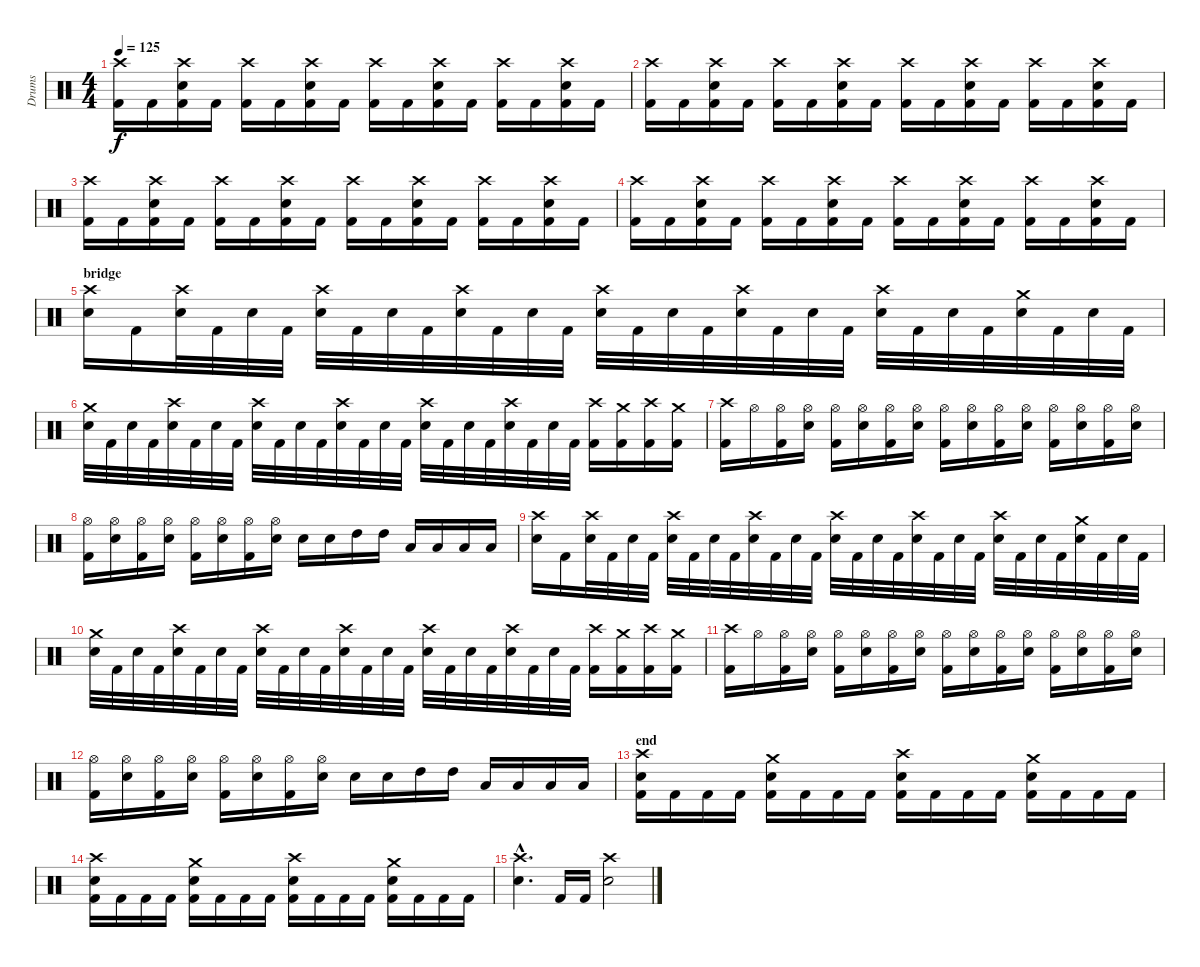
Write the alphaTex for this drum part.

\track ("Drums" "Drums") {instrument percussion}
\staff {score}
\articulation defaults
\ts (4 4)
\tempo 125
\clef neutral
\ks c
("Crash high (hit)" "Kick (hit) 2").16{dy f} "Kick (hit) 2".16 ("Crash high (hit)" "Electric Snare (hit)" "Kick (hit) 2").16 "Kick (hit) 2".16 ("Crash high (hit)" "Kick (hit) 2").16 "Kick (hit) 2".16 ("Crash high (hit)" "Electric Snare (hit)" "Kick (hit) 2").16 "Kick (hit) 2".16 ("Crash high (hit)" "Kick (hit) 2").16 "Kick (hit) 2".16 ("Crash high (hit)" "Electric Snare (hit)" "Kick (hit) 2").16 "Kick (hit) 2".16 ("Crash high (hit)" "Kick (hit) 2").16 "Kick (hit) 2".16 ("Crash high (hit)" "Electric Snare (hit)" "Kick (hit) 2").16 "Kick (hit) 2".16 |
("Crash high (hit)" "Kick (hit) 2").16 "Kick (hit) 2".16 ("Crash high (hit)" "Electric Snare (hit)" "Kick (hit) 2").16 "Kick (hit) 2".16 ("Crash high (hit)" "Kick (hit) 2").16 "Kick (hit) 2".16 ("Crash high (hit)" "Electric Snare (hit)" "Kick (hit) 2").16 "Kick (hit) 2".16 ("Crash high (hit)" "Kick (hit) 2").16 "Kick (hit) 2".16 ("Crash high (hit)" "Electric Snare (hit)" "Kick (hit) 2").16 "Kick (hit) 2".16 ("Crash high (hit)" "Kick (hit) 2").16 "Kick (hit) 2".16 ("Crash high (hit)" "Electric Snare (hit)" "Kick (hit) 2").16 "Kick (hit) 2".16 |
("Crash high (hit)" "Kick (hit) 2").16 "Kick (hit) 2".16 ("Crash high (hit)" "Electric Snare (hit)" "Kick (hit) 2").16 "Kick (hit) 2".16 ("Crash high (hit)" "Kick (hit) 2").16 "Kick (hit) 2".16 ("Crash high (hit)" "Electric Snare (hit)" "Kick (hit) 2").16 "Kick (hit) 2".16 ("Crash high (hit)" "Kick (hit) 2").16 "Kick (hit) 2".16 ("Crash high (hit)" "Electric Snare (hit)" "Kick (hit) 2").16 "Kick (hit) 2".16 ("Crash high (hit)" "Kick (hit) 2").16 "Kick (hit) 2".16 ("Crash high (hit)" "Electric Snare (hit)" "Kick (hit) 2").16 "Kick (hit) 2".16 |
("Crash high (hit)" "Kick (hit) 2").16 "Kick (hit) 2".16 ("Crash high (hit)" "Electric Snare (hit)" "Kick (hit) 2").16 "Kick (hit) 2".16 ("Crash high (hit)" "Kick (hit) 2").16 "Kick (hit) 2".16 ("Crash high (hit)" "Electric Snare (hit)" "Kick (hit) 2").16 "Kick (hit) 2".16 ("Crash high (hit)" "Kick (hit) 2").16 "Kick (hit) 2".16 ("Crash high (hit)" "Electric Snare (hit)" "Kick (hit) 2").16 "Kick (hit) 2".16 ("Crash high (hit)" "Kick (hit) 2").16 "Kick (hit) 2".16 ("Crash high (hit)" "Electric Snare (hit)" "Kick (hit) 2").16 "Kick (hit) 2".16 |
\section ("" "bridge")
("Crash high (hit)" "Electric Snare (hit)").16 "Kick (hit) 2".16 ("Crash high (hit)" "Electric Snare (hit)").32 "Kick (hit) 2".32 "Electric Snare (hit)".32 "Kick (hit) 2".32 ("Crash high (hit)" "Electric Snare (hit)").32 "Kick (hit) 2".32 "Electric Snare (hit)".32 "Kick (hit) 2".32 ("Crash high (hit)" "Electric Snare (hit)").32 "Kick (hit) 2".32 "Electric Snare (hit)".32 "Kick (hit) 2".32 ("Crash high (hit)" "Electric Snare (hit)").32 "Kick (hit) 2".32 "Electric Snare (hit)".32 "Kick (hit) 2".32 ("Crash high (hit)" "Electric Snare (hit)").32 "Kick (hit) 2".32 "Electric Snare (hit)".32 "Kick (hit) 2".32 ("Crash high (hit)" "Electric Snare (hit)").32 "Kick (hit) 2".32 "Electric Snare (hit)".32 "Kick (hit) 2".32 ("Crash medium (hit)" "Electric Snare (hit)").32 "Kick (hit) 2".32 "Electric Snare (hit)".32 "Kick (hit) 2".32 |
("Crash medium (hit)" "Electric Snare (hit)").32 "Kick (hit) 2".32 "Electric Snare (hit)".32 "Kick (hit) 2".32 ("Crash high (hit)" "Electric Snare (hit)").32 "Kick (hit) 2".32 "Electric Snare (hit)".32 "Kick (hit) 2".32 ("Crash high (hit)" "Electric Snare (hit)").32 "Kick (hit) 2".32 "Electric Snare (hit)".32 "Kick (hit) 2".32 ("Crash high (hit)" "Electric Snare (hit)").32 "Kick (hit) 2".32 "Electric Snare (hit)".32 "Kick (hit) 2".32 ("Crash high (hit)" "Electric Snare (hit)").32 "Kick (hit) 2".32 "Electric Snare (hit)".32 "Kick (hit) 2".32 ("Crash high (hit)" "Electric Snare (hit)").32 "Kick (hit) 2".32 "Electric Snare (hit)".32 "Kick (hit) 2".32 ("Crash high (hit)" "Kick (hit) 2").16 ("Crash medium (hit)" "Kick (hit) 2").16 ("Crash high (hit)" "Kick (hit) 2").16 ("Crash medium (hit)" "Kick (hit) 2").16 |
("Crash high (hit)" "Kick (hit) 2").16 "Hi-Hat (open)".16 ("Hi-Hat (open)" "Kick (hit) 2").16 ("Hi-Hat (open)" "Electric Snare (hit)").16 ("Hi-Hat (open)" "Kick (hit) 2").16 ("Hi-Hat (open)" "Electric Snare (hit)").16 ("Hi-Hat (open)" "Kick (hit) 2").16 ("Hi-Hat (open)" "Electric Snare (hit)").16 ("Hi-Hat (open)" "Kick (hit) 2").16 ("Hi-Hat (open)" "Electric Snare (hit)").16 ("Hi-Hat (open)" "Kick (hit) 2").16 ("Hi-Hat (open)" "Electric Snare (hit)").16 ("Hi-Hat (open)" "Kick (hit) 2").16 ("Hi-Hat (open)" "Electric Snare (hit)").16 ("Hi-Hat (open)" "Kick (hit) 2").16 ("Hi-Hat (open)" "Electric Snare (hit)").16 |
("Hi-Hat (open)" "Kick (hit) 2").16 ("Hi-Hat (open)" "Electric Snare (hit)").16 ("Hi-Hat (open)" "Kick (hit) 2").16 ("Hi-Hat (open)" "Electric Snare (hit)").16 ("Hi-Hat (open)" "Kick (hit) 2").16 ("Hi-Hat (open)" "Electric Snare (hit)").16 ("Hi-Hat (open)" "Kick (hit) 2").16 ("Hi-Hat (open)" "Electric Snare (hit)").16 "Electric Snare (hit)".16 "Electric Snare (hit)".16 "High Tom (hit)".16 "High Tom (hit)".16 "Low Tom (hit)".16 "Low Tom (hit)".16 "Low Floor Tom (hit)".16 "Low Floor Tom (hit)".16 |
("Crash high (hit)" "Electric Snare (hit)").16 "Kick (hit) 2".16 ("Crash high (hit)" "Electric Snare (hit)").32 "Kick (hit) 2".32 "Electric Snare (hit)".32 "Kick (hit) 2".32 ("Crash high (hit)" "Electric Snare (hit)").32 "Kick (hit) 2".32 "Electric Snare (hit)".32 "Kick (hit) 2".32 ("Crash high (hit)" "Electric Snare (hit)").32 "Kick (hit) 2".32 "Electric Snare (hit)".32 "Kick (hit) 2".32 ("Crash high (hit)" "Electric Snare (hit)").32 "Kick (hit) 2".32 "Electric Snare (hit)".32 "Kick (hit) 2".32 ("Crash high (hit)" "Electric Snare (hit)").32 "Kick (hit) 2".32 "Electric Snare (hit)".32 "Kick (hit) 2".32 ("Crash high (hit)" "Electric Snare (hit)").32 "Kick (hit) 2".32 "Electric Snare (hit)".32 "Kick (hit) 2".32 ("Crash medium (hit)" "Electric Snare (hit)").32 "Kick (hit) 2".32 "Electric Snare (hit)".32 "Kick (hit) 2".32 |
("Crash medium (hit)" "Electric Snare (hit)").32 "Kick (hit) 2".32 "Electric Snare (hit)".32 "Kick (hit) 2".32 ("Crash high (hit)" "Electric Snare (hit)").32 "Kick (hit) 2".32 "Electric Snare (hit)".32 "Kick (hit) 2".32 ("Crash high (hit)" "Electric Snare (hit)").32 "Kick (hit) 2".32 "Electric Snare (hit)".32 "Kick (hit) 2".32 ("Crash high (hit)" "Electric Snare (hit)").32 "Kick (hit) 2".32 "Electric Snare (hit)".32 "Kick (hit) 2".32 ("Crash high (hit)" "Electric Snare (hit)").32 "Kick (hit) 2".32 "Electric Snare (hit)".32 "Kick (hit) 2".32 ("Crash high (hit)" "Electric Snare (hit)").32 "Kick (hit) 2".32 "Electric Snare (hit)".32 "Kick (hit) 2".32 ("Crash high (hit)" "Kick (hit) 2").16 ("Crash medium (hit)" "Kick (hit) 2").16 ("Crash high (hit)" "Kick (hit) 2").16 ("Crash medium (hit)" "Kick (hit) 2").16 |
("Crash high (hit)" "Kick (hit) 2").16 "Hi-Hat (open)".16 ("Hi-Hat (open)" "Kick (hit) 2").16 ("Hi-Hat (open)" "Electric Snare (hit)").16 ("Hi-Hat (open)" "Kick (hit) 2").16 ("Hi-Hat (open)" "Electric Snare (hit)").16 ("Hi-Hat (open)" "Kick (hit) 2").16 ("Hi-Hat (open)" "Electric Snare (hit)").16 ("Hi-Hat (open)" "Kick (hit) 2").16 ("Hi-Hat (open)" "Electric Snare (hit)").16 ("Hi-Hat (open)" "Kick (hit) 2").16 ("Hi-Hat (open)" "Electric Snare (hit)").16 ("Hi-Hat (open)" "Kick (hit) 2").16 ("Hi-Hat (open)" "Electric Snare (hit)").16 ("Hi-Hat (open)" "Kick (hit) 2").16 ("Hi-Hat (open)" "Electric Snare (hit)").16 |
("Hi-Hat (open)" "Kick (hit) 2").16 ("Hi-Hat (open)" "Electric Snare (hit)").16 ("Hi-Hat (open)" "Kick (hit) 2").16 ("Hi-Hat (open)" "Electric Snare (hit)").16 ("Hi-Hat (open)" "Kick (hit) 2").16 ("Hi-Hat (open)" "Electric Snare (hit)").16 ("Hi-Hat (open)" "Kick (hit) 2").16 ("Hi-Hat (open)" "Electric Snare (hit)").16 "Electric Snare (hit)".16 "Electric Snare (hit)".16 "High Tom (hit)".16 "High Tom (hit)".16 "Low Tom (hit)".16 "Low Tom (hit)".16 "Low Floor Tom (hit)".16 "Low Floor Tom (hit)".16 |
\section ("" "end")
("Crash high (hit)" "Electric Snare (hit)" "Kick (hit) 2").16 "Kick (hit) 2".16 "Kick (hit) 2".16 "Kick (hit) 2".16 ("Crash medium (hit)" "Electric Snare (hit)" "Kick (hit) 2").16 "Kick (hit) 2".16 "Kick (hit) 2".16 "Kick (hit) 2".16 ("Crash high (hit)" "Electric Snare (hit)" "Kick (hit) 2").16 "Kick (hit) 2".16 "Kick (hit) 2".16 "Kick (hit) 2".16 ("Crash medium (hit)" "Electric Snare (hit)" "Kick (hit) 2").16 "Kick (hit) 2".16 "Kick (hit) 2".16 "Kick (hit) 2".16 |
("Crash high (hit)" "Electric Snare (hit)" "Kick (hit) 2").16 "Kick (hit) 2".16 "Kick (hit) 2".16 "Kick (hit) 2".16 ("Crash medium (hit)" "Electric Snare (hit)" "Kick (hit) 2").16 "Kick (hit) 2".16 "Kick (hit) 2".16 "Kick (hit) 2".16 ("Crash high (hit)" "Electric Snare (hit)" "Kick (hit) 2").16 "Kick (hit) 2".16 "Kick (hit) 2".16 "Kick (hit) 2".16 ("Crash medium (hit)" "Electric Snare (hit)" "Kick (hit) 2").16 "Kick (hit) 2".16 "Kick (hit) 2".16 "Kick (hit) 2".16 |
("Crash high (hit)"{hac} "Electric Snare (hit)"{hac}).4{d} "Kick (hit) 2".16 "Kick (hit) 2".16 ("Crash high (hit)" "Electric Snare (hit)").2
